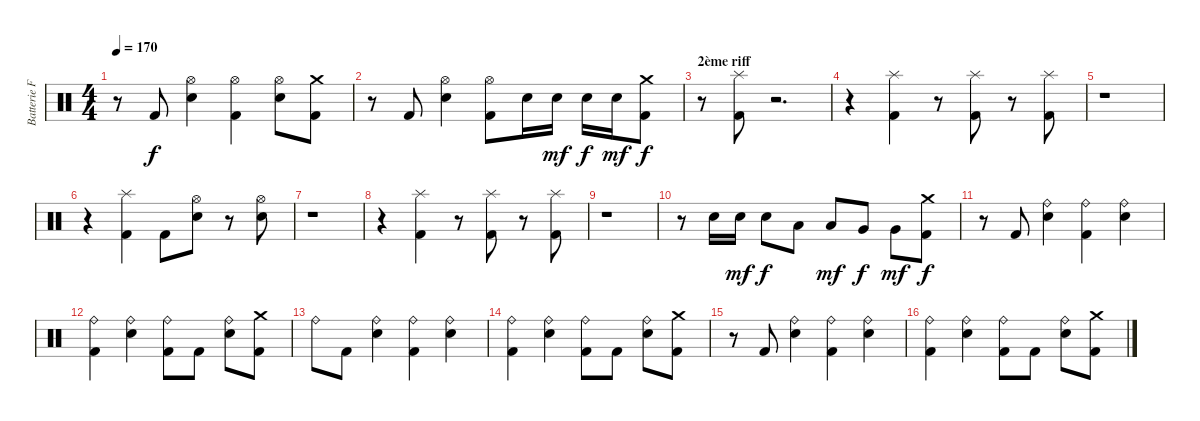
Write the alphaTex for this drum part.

\track ("Batterie Franck" "Batterie F") {instrument percussion}
\staff {score}
\articulation defaults
\ts (4 4)
\tempo 170
\clef neutral
\ks c
r.8{dy f} "Kick (hit) 2".8 ("Hi-Hat (open)" "Snare (hit) 2").4 ("Hi-Hat (open)" "Kick (hit) 2").4 ("Hi-Hat (open)" "Snare (hit) 2").8 ("Crash medium (hit)" "Kick (hit) 2").8 |
r.8 "Kick (hit) 2".8 ("Hi-Hat (open)" "Snare (hit) 2").4 ("Hi-Hat (open)" "Kick (hit) 2").8 "Snare (hit) 2".16 "Snare (hit) 2".16{dy mf} "Snare (hit) 2".16{dy f} "Snare (hit) 2".16{dy mf} ("Crash medium (hit)" "Kick (hit) 2").8{dy f} |
\section ("" "2ème riff")
r.8 ("Splash (hit)" "Kick (hit) 2").8 r.2{d} |
r.4 ("Splash (hit)" "Kick (hit) 2").4 r.8 ("Splash (hit)" "Kick (hit) 2").8 r.8 ("Splash (hit)" "Kick (hit) 2").8 |
r.1 |
r.4 ("Splash (hit)" "Kick (hit) 2").4 "Kick (hit) 2".8 ("Hi-Hat (open)" "Snare (hit) 2").8 r.8 ("Hi-Hat (open)" "Snare (hit) 2").8 |
r.1 |
r.4 ("Splash (hit)" "Kick (hit) 2").4 r.8 ("Splash (hit)" "Kick (hit) 2").8 r.8 ("Splash (hit)" "Kick (hit) 2").8 |
r.1 |
r.8 "Snare (hit) 2".16 "Snare (hit) 2".16{dy mf} "Snare (hit) 2".8{dy f} "Low Tom (hit)".8 "Low Tom (hit)".8{dy mf} "Very Low Tom (hit)".8{dy f} "Very Low Tom (hit)".8{dy mf} ("Crash medium (hit)" "Kick (hit) 2").8{dy f} |
r.8 "Kick (hit) 2".8 ("Ride (bell)" "Snare (hit) 2").4 ("Ride (bell)" "Kick (hit) 2").4 ("Ride (bell)" "Snare (hit) 2").4 |
("Ride (bell)" "Kick (hit) 2").4 ("Ride (bell)" "Snare (hit) 2").4 ("Ride (bell)" "Kick (hit) 2").8 "Kick (hit) 2".8 ("Ride (bell)" "Snare (hit) 2").8 ("Crash medium (hit)" "Kick (hit) 2").8 |
"Ride (bell)".8 "Kick (hit) 2".8 ("Ride (bell)" "Snare (hit) 2").4 ("Ride (bell)" "Kick (hit) 2").4 ("Ride (bell)" "Snare (hit) 2").4 |
("Ride (bell)" "Kick (hit) 2").4 ("Ride (bell)" "Snare (hit) 2").4 ("Ride (bell)" "Kick (hit) 2").8 "Kick (hit) 2".8 ("Ride (bell)" "Snare (hit) 2").8 ("Crash medium (hit)" "Kick (hit) 2").8 |
r.8 "Kick (hit) 2".8 ("Ride (bell)" "Snare (hit) 2").4 ("Ride (bell)" "Kick (hit) 2").4 ("Ride (bell)" "Snare (hit) 2").4 |
("Ride (bell)" "Kick (hit) 2").4 ("Ride (bell)" "Snare (hit) 2").4 ("Ride (bell)" "Kick (hit) 2").8 "Kick (hit) 2".8 ("Ride (bell)" "Snare (hit) 2").8 ("Crash medium (hit)" "Kick (hit) 2").8
